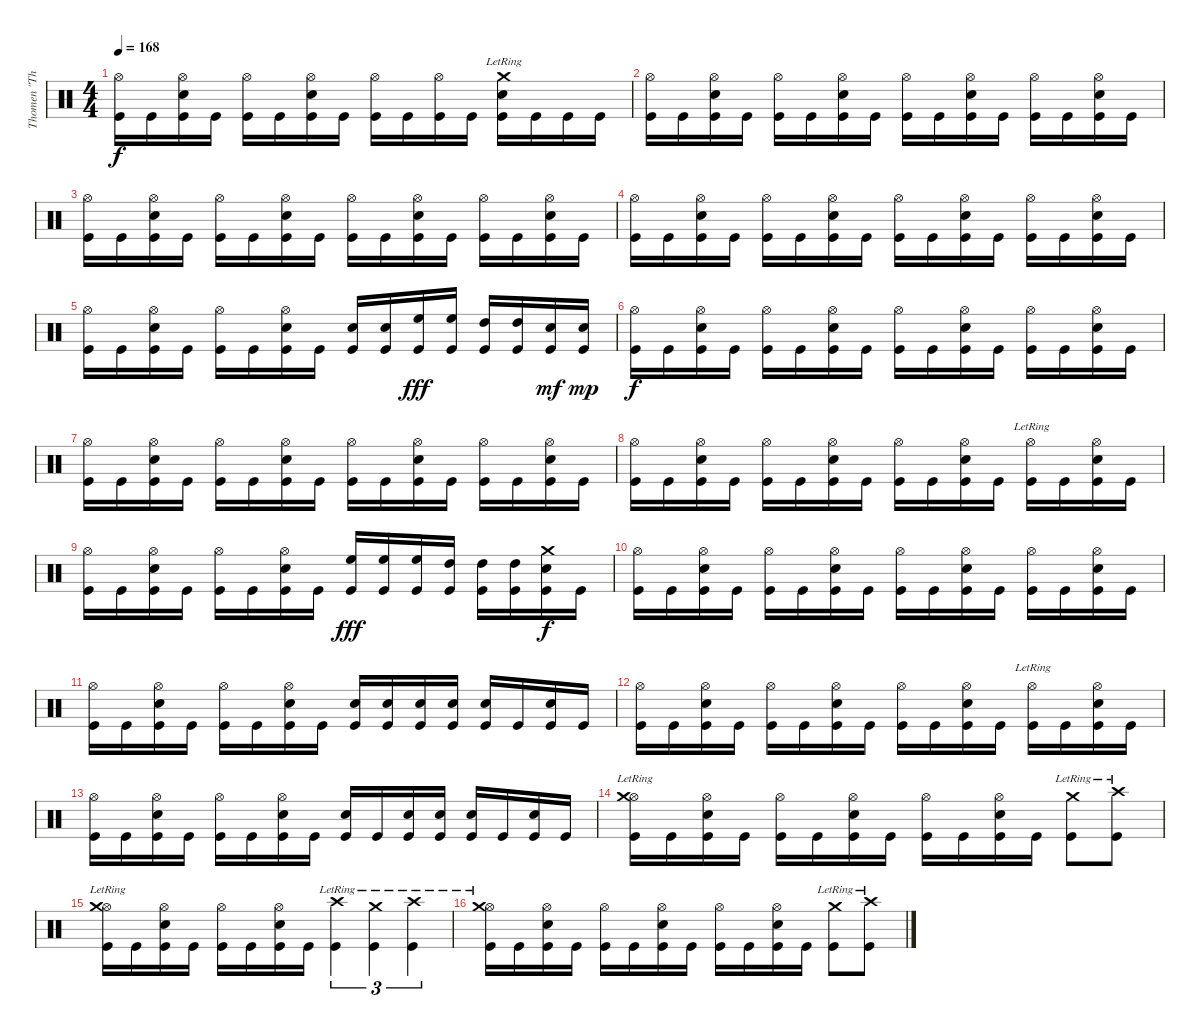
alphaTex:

\track ("Thomen \"The Omen\" Stauch" "Thomen \"Th") {instrument percussion}
\staff {score}
\articulation defaults
\ts (4 4)
\tempo 168
\clef neutral
\ks c
("Hi-Hat (open)" "Kick (hit)").16{dy f} "Kick (hit)".16 ("Hi-Hat (open)" "Snare (hit) 2" "Kick (hit)").16 "Kick (hit)".16 ("Hi-Hat (open)" "Kick (hit)").16 "Kick (hit)".16 ("Hi-Hat (open)" "Snare (hit) 2" "Kick (hit)").16 "Kick (hit)".16 ("Hi-Hat (open)" "Kick (hit)").16 "Kick (hit)".16 ("Hi-Hat (open)" "Kick (hit)").16 "Kick (hit)".16 ("Crash medium (hit)"{lr} "Snare (hit) 2" "Kick (hit)").16 "Kick (hit)".16 "Kick (hit)".16 "Kick (hit)".16 |
("Hi-Hat (open)" "Kick (hit)").16 "Kick (hit)".16 ("Hi-Hat (open)" "Snare (hit) 2" "Kick (hit)").16 "Kick (hit)".16 ("Hi-Hat (open)" "Kick (hit)").16 "Kick (hit)".16 ("Hi-Hat (open)" "Snare (hit) 2" "Kick (hit)").16 "Kick (hit)".16 ("Hi-Hat (open)" "Kick (hit)").16 "Kick (hit)".16 ("Hi-Hat (open)" "Snare (hit) 2" "Kick (hit)").16 "Kick (hit)".16 ("Hi-Hat (open)" "Kick (hit)").16 "Kick (hit)".16 ("Hi-Hat (open)" "Snare (hit) 2" "Kick (hit)").16 "Kick (hit)".16 |
("Hi-Hat (open)" "Kick (hit)").16 "Kick (hit)".16 ("Hi-Hat (open)" "Snare (hit) 2" "Kick (hit)").16 "Kick (hit)".16 ("Hi-Hat (open)" "Kick (hit)").16 "Kick (hit)".16 ("Hi-Hat (open)" "Snare (hit) 2" "Kick (hit)").16 "Kick (hit)".16 ("Hi-Hat (open)" "Kick (hit)").16 "Kick (hit)".16 ("Hi-Hat (open)" "Snare (hit) 2" "Kick (hit)").16 "Kick (hit)".16 ("Hi-Hat (open)" "Kick (hit)").16 "Kick (hit)".16 ("Hi-Hat (open)" "Snare (hit) 2" "Kick (hit)").16 "Kick (hit)".16 |
("Hi-Hat (open)" "Kick (hit)").16 "Kick (hit)".16 ("Hi-Hat (open)" "Snare (hit) 2" "Kick (hit)").16 "Kick (hit)".16 ("Hi-Hat (open)" "Kick (hit)").16 "Kick (hit)".16 ("Hi-Hat (open)" "Snare (hit) 2" "Kick (hit)").16 "Kick (hit)".16 ("Hi-Hat (open)" "Kick (hit)").16 "Kick (hit)".16 ("Hi-Hat (open)" "Snare (hit) 2" "Kick (hit)").16 "Kick (hit)".16 ("Hi-Hat (open)" "Kick (hit)").16 "Kick (hit)".16 ("Hi-Hat (open)" "Snare (hit) 2" "Kick (hit)").16 "Kick (hit)".16 |
("Hi-Hat (open)" "Kick (hit)").16 "Kick (hit)".16 ("Hi-Hat (open)" "Snare (hit) 2" "Kick (hit)").16 "Kick (hit)".16 ("Hi-Hat (open)" "Kick (hit)").16 "Kick (hit)".16 ("Hi-Hat (open)" "Snare (hit) 2" "Kick (hit)").16 "Kick (hit)".16 ("Snare (hit) 2" "Kick (hit)").16 ("Snare (hit) 2" "Kick (hit)").16 ("High Floor Tom (hit)" "Kick (hit)").16{dy fff} ("High Floor Tom (hit)" "Kick (hit)").16 ("High Tom (hit)" "Kick (hit)").16 ("High Tom (hit)" "Kick (hit)").16 ("Snare (hit) 2" "Kick (hit)").16{dy mf} ("Snare (hit) 2" "Kick (hit)").16{dy mp} |
("Hi-Hat (open)" "Kick (hit)").16{dy f} "Kick (hit)".16 ("Hi-Hat (open)" "Snare (hit) 2" "Kick (hit)").16 "Kick (hit)".16 ("Hi-Hat (open)" "Kick (hit)").16 "Kick (hit)".16 ("Hi-Hat (open)" "Snare (hit) 2" "Kick (hit)").16 "Kick (hit)".16 ("Hi-Hat (open)" "Kick (hit)").16 "Kick (hit)".16 ("Hi-Hat (open)" "Snare (hit) 2" "Kick (hit)").16 "Kick (hit)".16 ("Hi-Hat (open)" "Kick (hit)").16 "Kick (hit)".16 ("Hi-Hat (open)" "Snare (hit) 2" "Kick (hit)").16 "Kick (hit)".16 |
("Hi-Hat (open)" "Kick (hit)").16 "Kick (hit)".16 ("Hi-Hat (open)" "Snare (hit) 2" "Kick (hit)").16 "Kick (hit)".16 ("Hi-Hat (open)" "Kick (hit)").16 "Kick (hit)".16 ("Hi-Hat (open)" "Snare (hit) 2" "Kick (hit)").16 "Kick (hit)".16 ("Hi-Hat (open)" "Kick (hit)").16 "Kick (hit)".16 ("Hi-Hat (open)" "Snare (hit) 2" "Kick (hit)").16 "Kick (hit)".16 ("Hi-Hat (open)" "Kick (hit)").16 "Kick (hit)".16 ("Hi-Hat (open)" "Snare (hit) 2" "Kick (hit)").16 "Kick (hit)".16 |
("Hi-Hat (open)" "Kick (hit)").16 "Kick (hit)".16 ("Hi-Hat (open)" "Snare (hit) 2" "Kick (hit)").16 "Kick (hit)".16 ("Hi-Hat (open)" "Kick (hit)").16 "Kick (hit)".16 ("Hi-Hat (open)" "Snare (hit) 2" "Kick (hit)").16 "Kick (hit)".16 ("Hi-Hat (open)" "Kick (hit)").16 "Kick (hit)".16 ("Hi-Hat (open)" "Snare (hit) 2" "Kick (hit)").16 "Kick (hit)".16 ("Hi-Hat (open)"{lr} "Kick (hit)").16 "Kick (hit)".16 ("Hi-Hat (open)" "Snare (hit) 2" "Kick (hit)").16 "Kick (hit)".16 |
("Hi-Hat (open)" "Kick (hit)").16 "Kick (hit)".16 ("Hi-Hat (open)" "Snare (hit) 2" "Kick (hit)").16 "Kick (hit)".16 ("Hi-Hat (open)" "Kick (hit)").16 "Kick (hit)".16 ("Hi-Hat (open)" "Snare (hit) 2" "Kick (hit)").16 "Kick (hit)".16 ("High Floor Tom (hit)" "Kick (hit)").16{dy fff} ("High Floor Tom (hit)" "Kick (hit)").16 ("High Floor Tom (hit)" "Kick (hit)").16 ("High Tom (hit)" "Kick (hit)").16 ("High Tom (hit)" "Kick (hit)").16 ("High Tom (hit)" "Kick (hit)").16 ("Crash medium (hit)" "Snare (hit) 2" "Kick (hit)").16{dy f} "Kick (hit)".16 |
("Hi-Hat (open)" "Kick (hit)").16 "Kick (hit)".16 ("Hi-Hat (open)" "Snare (hit) 2" "Kick (hit)").16 "Kick (hit)".16 ("Hi-Hat (open)" "Kick (hit)").16 "Kick (hit)".16 ("Hi-Hat (open)" "Snare (hit) 2" "Kick (hit)").16 "Kick (hit)".16 ("Hi-Hat (open)" "Kick (hit)").16 "Kick (hit)".16 ("Hi-Hat (open)" "Snare (hit) 2" "Kick (hit)").16 "Kick (hit)".16 ("Hi-Hat (open)" "Kick (hit)").16 "Kick (hit)".16 ("Hi-Hat (open)" "Snare (hit) 2" "Kick (hit)").16 "Kick (hit)".16 |
("Hi-Hat (open)" "Kick (hit)").16 "Kick (hit)".16 ("Hi-Hat (open)" "Snare (hit) 2" "Kick (hit)").16 "Kick (hit)".16 ("Hi-Hat (open)" "Kick (hit)").16 "Kick (hit)".16 ("Hi-Hat (open)" "Snare (hit) 2" "Kick (hit)").16 "Kick (hit)".16 ("Snare (hit) 2" "Kick (hit)").16 ("Snare (hit) 2" "Kick (hit)").16 ("Snare (hit) 2" "Kick (hit)").16 ("Snare (hit) 2" "Kick (hit)").16 ("Snare (hit) 2" "Kick (hit)").16 "Kick (hit)".16 ("Snare (hit) 2" "Kick (hit)").16 "Kick (hit)".16 |
("Hi-Hat (open)" "Kick (hit)").16 "Kick (hit)".16 ("Hi-Hat (open)" "Snare (hit) 2" "Kick (hit)").16 "Kick (hit)".16 ("Hi-Hat (open)" "Kick (hit)").16 "Kick (hit)".16 ("Hi-Hat (open)" "Snare (hit) 2" "Kick (hit)").16 "Kick (hit)".16 ("Hi-Hat (open)" "Kick (hit)").16 "Kick (hit)".16 ("Hi-Hat (open)" "Snare (hit) 2" "Kick (hit)").16 "Kick (hit)".16 ("Hi-Hat (open)"{lr} "Kick (hit)").16 "Kick (hit)".16 ("Hi-Hat (open)" "Snare (hit) 2" "Kick (hit)").16 "Kick (hit)".16 |
("Hi-Hat (open)" "Kick (hit)").16 "Kick (hit)".16 ("Hi-Hat (open)" "Snare (hit) 2" "Kick (hit)").16 "Kick (hit)".16 ("Hi-Hat (open)" "Kick (hit)").16 "Kick (hit)".16 ("Hi-Hat (open)" "Snare (hit) 2" "Kick (hit)").16 "Kick (hit)".16 ("Snare (hit) 2" "Kick (hit)").16 "Kick (hit)".16 ("Snare (hit) 2" "Kick (hit)").16 ("Snare (hit) 2" "Kick (hit)").16 ("Snare (hit) 2" "Kick (hit)").16 "Kick (hit)".16 ("Snare (hit) 2" "Kick (hit)").16 "Kick (hit)".16 |
("Hi-Hat (open)" "Crash medium (hit)"{lr} "Kick (hit)").16 "Kick (hit)".16 ("Hi-Hat (open)" "Snare (hit) 2" "Kick (hit)").16 "Kick (hit)".16 ("Hi-Hat (open)" "Kick (hit)").16 "Kick (hit)".16 ("Hi-Hat (open)" "Snare (hit) 2" "Kick (hit)").16 "Kick (hit)".16 ("Hi-Hat (open)" "Kick (hit)").16 "Kick (hit)".16 ("Hi-Hat (open)" "Snare (hit) 2" "Kick (hit)").16 "Kick (hit)".16 ("Crash medium (hit)"{lr} "Kick (hit)").8 ("Crash high (hit)"{lr} "Kick (hit)").8 |
("Hi-Hat (open)" "Crash medium (hit)"{lr} "Kick (hit)").16 "Kick (hit)".16 ("Hi-Hat (open)" "Snare (hit) 2" "Kick (hit)").16 "Kick (hit)".16 ("Hi-Hat (open)" "Kick (hit)").16 "Kick (hit)".16 ("Hi-Hat (open)" "Snare (hit) 2" "Kick (hit)").16 "Kick (hit)".16 ("Crash high (hit)"{lr} "Kick (hit)").4{tu (3 2)} ("Crash medium (hit)"{lr} "Kick (hit)").4{tu (3 2)} ("Crash high (hit)"{lr} "Kick (hit)").4{tu (3 2)} |
("Hi-Hat (open)" "Crash medium (hit)"{lr} "Kick (hit)").16 "Kick (hit)".16 ("Hi-Hat (open)" "Snare (hit) 2" "Kick (hit)").16 "Kick (hit)".16 ("Hi-Hat (open)" "Kick (hit)").16 "Kick (hit)".16 ("Hi-Hat (open)" "Snare (hit) 2" "Kick (hit)").16 "Kick (hit)".16 ("Hi-Hat (open)" "Kick (hit)").16 "Kick (hit)".16 ("Hi-Hat (open)" "Snare (hit) 2" "Kick (hit)").16 "Kick (hit)".16 ("Crash medium (hit)"{lr} "Kick (hit)").8 ("Crash high (hit)"{lr} "Kick (hit)").8
